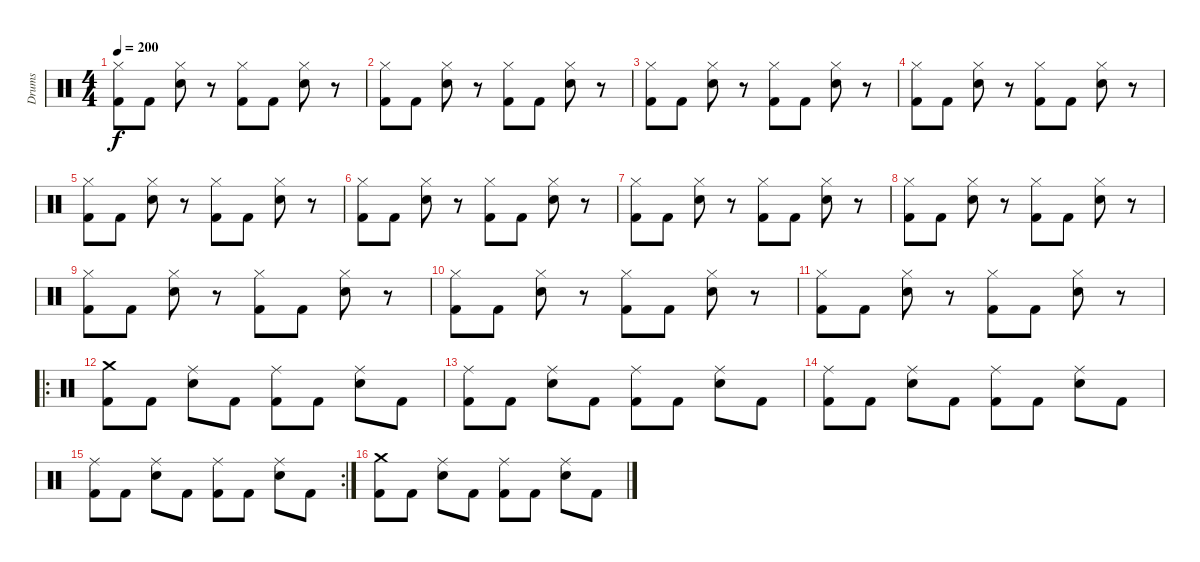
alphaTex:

\track ("Drums" "Drums") {instrument percussion}
\staff {score}
\articulation defaults
\ts (4 4)
\tempo 200
\clef neutral
\ks c
("Kick (hit) 2" "Hi-Hat (closed)").8{dy f} "Kick (hit) 2".8 ("Hi-Hat (closed)" "Electric Snare (hit)").8 r.8 ("Kick (hit) 2" "Hi-Hat (closed)").8 "Kick (hit) 2".8 ("Hi-Hat (closed)" "Electric Snare (hit)").8 r.8 |
("Kick (hit) 2" "Hi-Hat (closed)").8 "Kick (hit) 2".8 ("Hi-Hat (closed)" "Electric Snare (hit)").8 r.8 ("Kick (hit) 2" "Hi-Hat (closed)").8 "Kick (hit) 2".8 ("Hi-Hat (closed)" "Electric Snare (hit)").8 r.8 |
("Kick (hit) 2" "Hi-Hat (closed)").8 "Kick (hit) 2".8 ("Hi-Hat (closed)" "Electric Snare (hit)").8 r.8 ("Kick (hit) 2" "Hi-Hat (closed)").8 "Kick (hit) 2".8 ("Hi-Hat (closed)" "Electric Snare (hit)").8 r.8 |
("Kick (hit) 2" "Hi-Hat (closed)").8 "Kick (hit) 2".8 ("Hi-Hat (closed)" "Electric Snare (hit)").8 r.8 ("Kick (hit) 2" "Hi-Hat (closed)").8 "Kick (hit) 2".8 ("Hi-Hat (closed)" "Electric Snare (hit)").8 r.8 |
("Kick (hit) 2" "Hi-Hat (closed)").8 "Kick (hit) 2".8 ("Hi-Hat (closed)" "Electric Snare (hit)").8 r.8 ("Kick (hit) 2" "Hi-Hat (closed)").8 "Kick (hit) 2".8 ("Hi-Hat (closed)" "Electric Snare (hit)").8 r.8 |
("Kick (hit) 2" "Hi-Hat (closed)").8 "Kick (hit) 2".8 ("Hi-Hat (closed)" "Electric Snare (hit)").8 r.8 ("Kick (hit) 2" "Hi-Hat (closed)").8 "Kick (hit) 2".8 ("Hi-Hat (closed)" "Electric Snare (hit)").8 r.8 |
("Kick (hit) 2" "Hi-Hat (closed)").8 "Kick (hit) 2".8 ("Hi-Hat (closed)" "Electric Snare (hit)").8 r.8 ("Kick (hit) 2" "Hi-Hat (closed)").8 "Kick (hit) 2".8 ("Hi-Hat (closed)" "Electric Snare (hit)").8 r.8 |
("Kick (hit) 2" "Hi-Hat (closed)").8 "Kick (hit) 2".8 ("Hi-Hat (closed)" "Electric Snare (hit)").8 r.8 ("Kick (hit) 2" "Hi-Hat (closed)").8 "Kick (hit) 2".8 ("Hi-Hat (closed)" "Electric Snare (hit)").8 r.8 |
("Kick (hit) 2" "Hi-Hat (closed)").8 "Kick (hit) 2".8 ("Hi-Hat (closed)" "Electric Snare (hit)").8 r.8 ("Kick (hit) 2" "Hi-Hat (closed)").8 "Kick (hit) 2".8 ("Hi-Hat (closed)" "Electric Snare (hit)").8 r.8 |
("Kick (hit) 2" "Hi-Hat (closed)").8 "Kick (hit) 2".8 ("Hi-Hat (closed)" "Electric Snare (hit)").8 r.8 ("Kick (hit) 2" "Hi-Hat (closed)").8 "Kick (hit) 2".8 ("Hi-Hat (closed)" "Electric Snare (hit)").8 r.8 |
("Kick (hit) 2" "Hi-Hat (closed)").8 "Kick (hit) 2".8 ("Hi-Hat (closed)" "Electric Snare (hit)").8 r.8 ("Kick (hit) 2" "Hi-Hat (closed)").8 "Kick (hit) 2".8 ("Hi-Hat (closed)" "Electric Snare (hit)").8 r.8 |
\ro
("Kick (hit) 2" "Crash medium (hit)").8 "Kick (hit) 2".8 ("Ride (middle)" "Electric Snare (hit)").8 "Kick (hit) 2".8 ("Kick (hit) 2" "Ride (middle)").8 "Kick (hit) 2".8 ("Ride (middle)" "Electric Snare (hit)").8 "Kick (hit) 2".8 |
("Kick (hit) 2" "Ride (middle)").8 "Kick (hit) 2".8 ("Ride (middle)" "Electric Snare (hit)").8 "Kick (hit) 2".8 ("Kick (hit) 2" "Ride (middle)").8 "Kick (hit) 2".8 ("Ride (middle)" "Electric Snare (hit)").8 "Kick (hit) 2".8 |
("Kick (hit) 2" "Ride (middle)").8 "Kick (hit) 2".8 ("Ride (middle)" "Electric Snare (hit)").8 "Kick (hit) 2".8 ("Kick (hit) 2" "Ride (middle)").8 "Kick (hit) 2".8 ("Ride (middle)" "Electric Snare (hit)").8 "Kick (hit) 2".8 |
\rc 2
("Kick (hit) 2" "Ride (middle)").8 "Kick (hit) 2".8 ("Ride (middle)" "Electric Snare (hit)").8 "Kick (hit) 2".8 ("Kick (hit) 2" "Ride (middle)").8 "Kick (hit) 2".8 ("Ride (middle)" "Electric Snare (hit)").8 "Kick (hit) 2".8 |
("Kick (hit) 2" "Crash medium (hit)").8 "Kick (hit) 2".8 ("Ride (middle)" "Electric Snare (hit)").8 "Kick (hit) 2".8 ("Kick (hit) 2" "Ride (middle)").8 "Kick (hit) 2".8 ("Ride (middle)" "Electric Snare (hit)").8 "Kick (hit) 2".8
